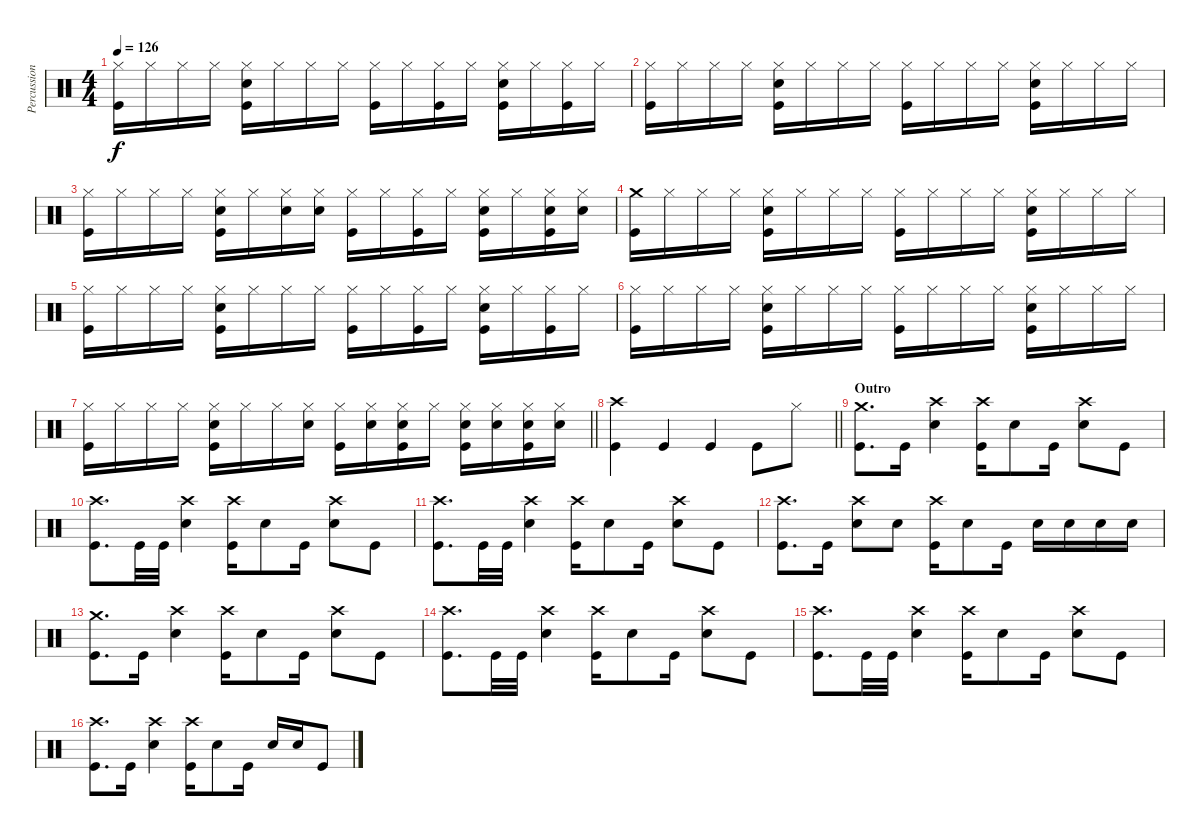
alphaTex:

\track ("Percussion" "Percussion") {instrument percussion}
\staff {score}
\articulation defaults
\ts (4 4)
\tempo 126
\clef neutral
\ks c
("Hi-Hat (closed)" "Kick (hit)").16{dy f} "Hi-Hat (closed)".16 "Hi-Hat (closed)".16 "Hi-Hat (closed)".16 ("Hi-Hat (closed)" "Electric Snare (hit)" "Kick (hit)").16 "Hi-Hat (closed)".16 "Hi-Hat (closed)".16 "Hi-Hat (closed)".16 ("Hi-Hat (closed)" "Kick (hit)").16 "Hi-Hat (closed)".16 ("Hi-Hat (closed)" "Kick (hit)").16 "Hi-Hat (closed)".16 ("Hi-Hat (closed)" "Electric Snare (hit)" "Kick (hit)").16 "Hi-Hat (closed)".16 ("Hi-Hat (closed)" "Kick (hit)").16 "Hi-Hat (closed)".16 |
("Hi-Hat (closed)" "Kick (hit)").16 "Hi-Hat (closed)".16 "Hi-Hat (closed)".16 "Hi-Hat (closed)".16 ("Hi-Hat (closed)" "Electric Snare (hit)" "Kick (hit)").16 "Hi-Hat (closed)".16 "Hi-Hat (closed)".16 "Hi-Hat (closed)".16 ("Hi-Hat (closed)" "Kick (hit)").16 "Hi-Hat (closed)".16 "Hi-Hat (closed)".16 "Hi-Hat (closed)".16 ("Hi-Hat (closed)" "Electric Snare (hit)" "Kick (hit)").16 "Hi-Hat (closed)".16 "Hi-Hat (closed)".16 "Hi-Hat (closed)".16 |
("Hi-Hat (closed)" "Kick (hit)").16 "Hi-Hat (closed)".16 "Hi-Hat (closed)".16 "Hi-Hat (closed)".16 ("Hi-Hat (closed)" "Electric Snare (hit)" "Kick (hit)").16 "Hi-Hat (closed)".16 ("Hi-Hat (closed)" "Electric Snare (hit)").16 ("Hi-Hat (closed)" "Electric Snare (hit)").16 ("Hi-Hat (closed)" "Kick (hit)").16 "Hi-Hat (closed)".16 ("Hi-Hat (closed)" "Kick (hit)").16 "Hi-Hat (closed)".16 ("Hi-Hat (closed)" "Electric Snare (hit)" "Kick (hit)").16 "Hi-Hat (closed)".16 ("Hi-Hat (closed)" "Electric Snare (hit)" "Kick (hit)").16 ("Hi-Hat (closed)" "Electric Snare (hit)").16 |
("Crash medium (hit)" "Kick (hit)").16 "Hi-Hat (closed)".16 "Hi-Hat (closed)".16 "Hi-Hat (closed)".16 ("Hi-Hat (closed)" "Electric Snare (hit)" "Kick (hit)").16 "Hi-Hat (closed)".16 "Hi-Hat (closed)".16 "Hi-Hat (closed)".16 ("Hi-Hat (closed)" "Kick (hit)").16 "Hi-Hat (closed)".16 "Hi-Hat (closed)".16 "Hi-Hat (closed)".16 ("Hi-Hat (closed)" "Electric Snare (hit)" "Kick (hit)").16 "Hi-Hat (closed)".16 "Hi-Hat (closed)".16 "Hi-Hat (closed)".16 |
("Hi-Hat (closed)" "Kick (hit)").16 "Hi-Hat (closed)".16 "Hi-Hat (closed)".16 "Hi-Hat (closed)".16 ("Hi-Hat (closed)" "Electric Snare (hit)" "Kick (hit)").16 "Hi-Hat (closed)".16 "Hi-Hat (closed)".16 "Hi-Hat (closed)".16 ("Hi-Hat (closed)" "Kick (hit)").16 "Hi-Hat (closed)".16 ("Hi-Hat (closed)" "Kick (hit)").16 "Hi-Hat (closed)".16 ("Hi-Hat (closed)" "Electric Snare (hit)" "Kick (hit)").16 "Hi-Hat (closed)".16 ("Hi-Hat (closed)" "Kick (hit)").16 "Hi-Hat (closed)".16 |
("Hi-Hat (closed)" "Kick (hit)").16 "Hi-Hat (closed)".16 "Hi-Hat (closed)".16 "Hi-Hat (closed)".16 ("Hi-Hat (closed)" "Electric Snare (hit)" "Kick (hit)").16 "Hi-Hat (closed)".16 "Hi-Hat (closed)".16 "Hi-Hat (closed)".16 ("Hi-Hat (closed)" "Kick (hit)").16 "Hi-Hat (closed)".16 "Hi-Hat (closed)".16 "Hi-Hat (closed)".16 ("Hi-Hat (closed)" "Electric Snare (hit)" "Kick (hit)").16 "Hi-Hat (closed)".16 "Hi-Hat (closed)".16 "Hi-Hat (closed)".16 |
\barLineRight lightlight
("Hi-Hat (closed)" "Kick (hit)").16 "Hi-Hat (closed)".16 "Hi-Hat (closed)".16 "Hi-Hat (closed)".16 ("Hi-Hat (closed)" "Electric Snare (hit)" "Kick (hit)").16 "Hi-Hat (closed)".16 "Hi-Hat (closed)".16 ("Hi-Hat (closed)" "Electric Snare (hit)").16 ("Hi-Hat (closed)" "Kick (hit)").16 ("Hi-Hat (closed)" "Electric Snare (hit)").16 ("Hi-Hat (closed)" "Electric Snare (hit)" "Kick (hit)").16 "Hi-Hat (closed)".16 ("Hi-Hat (closed)" "Electric Snare (hit)" "Kick (hit)").16 ("Hi-Hat (closed)" "Electric Snare (hit)").16 ("Hi-Hat (closed)" "Electric Snare (hit)" "Kick (hit)").16 ("Hi-Hat (closed)" "Electric Snare (hit)").16 |
\section ("" "")
\barLineRight lightlight
("Crash high (hit)" "Kick (hit)").4 "Kick (hit)".4 "Kick (hit)".4 "Kick (hit)".8 "Hi-Hat (closed)".8 |
\section ("" "Outro")
("Crash medium (hit)" "Kick (hit)").8{d} "Kick (hit)".16 ("Crash high (hit)" "Electric Snare (hit)").4 ("Crash high (hit)" "Kick (hit)").16 "Electric Snare (hit)".8 "Kick (hit)".16 ("Crash high (hit)" "Electric Snare (hit)").8 "Kick (hit)".8 |
("Crash high (hit)" "Kick (hit)").8{d} "Kick (hit)".32 "Kick (hit)".32 ("Crash high (hit)" "Electric Snare (hit)").4 ("Crash high (hit)" "Kick (hit)").16 "Electric Snare (hit)".8 "Kick (hit)".16 ("Crash high (hit)" "Electric Snare (hit)").8 "Kick (hit)".8 |
("Crash high (hit)" "Kick (hit)").8{d} "Kick (hit)".32 "Kick (hit)".32 ("Crash high (hit)" "Electric Snare (hit)").4 ("Crash high (hit)" "Kick (hit)").16 "Electric Snare (hit)".8 "Kick (hit)".16 ("Crash high (hit)" "Electric Snare (hit)").8 "Kick (hit)".8 |
("Crash high (hit)" "Kick (hit)").8{d} "Kick (hit)".16 ("Crash high (hit)" "Electric Snare (hit)").8 "Electric Snare (hit)".8 ("Crash high (hit)" "Kick (hit)").16 "Electric Snare (hit)".8 "Kick (hit)".16 "Electric Snare (hit)".16 "Electric Snare (hit)".16 "Electric Snare (hit)".16 "Electric Snare (hit)".16 |
("Crash medium (hit)" "Kick (hit)").8{d} "Kick (hit)".16 ("Crash high (hit)" "Electric Snare (hit)").4 ("Crash high (hit)" "Kick (hit)").16 "Electric Snare (hit)".8 "Kick (hit)".16 ("Crash high (hit)" "Electric Snare (hit)").8 "Kick (hit)".8 |
("Crash high (hit)" "Kick (hit)").8{d} "Kick (hit)".32 "Kick (hit)".32 ("Crash high (hit)" "Electric Snare (hit)").4 ("Crash high (hit)" "Kick (hit)").16 "Electric Snare (hit)".8 "Kick (hit)".16 ("Crash high (hit)" "Electric Snare (hit)").8 "Kick (hit)".8 |
("Crash high (hit)" "Kick (hit)").8{d} "Kick (hit)".32 "Kick (hit)".32 ("Crash high (hit)" "Electric Snare (hit)").4 ("Crash high (hit)" "Kick (hit)").16 "Electric Snare (hit)".8 "Kick (hit)".16 ("Crash high (hit)" "Electric Snare (hit)").8 "Kick (hit)".8 |
("Crash high (hit)" "Kick (hit)").8{d} "Kick (hit)".16 ("Crash high (hit)" "Electric Snare (hit)").4 ("Crash high (hit)" "Kick (hit)").16 "Electric Snare (hit)".8 "Kick (hit)".16 "Electric Snare (hit)".16 "Electric Snare (hit)".16 "Kick (hit)".8
